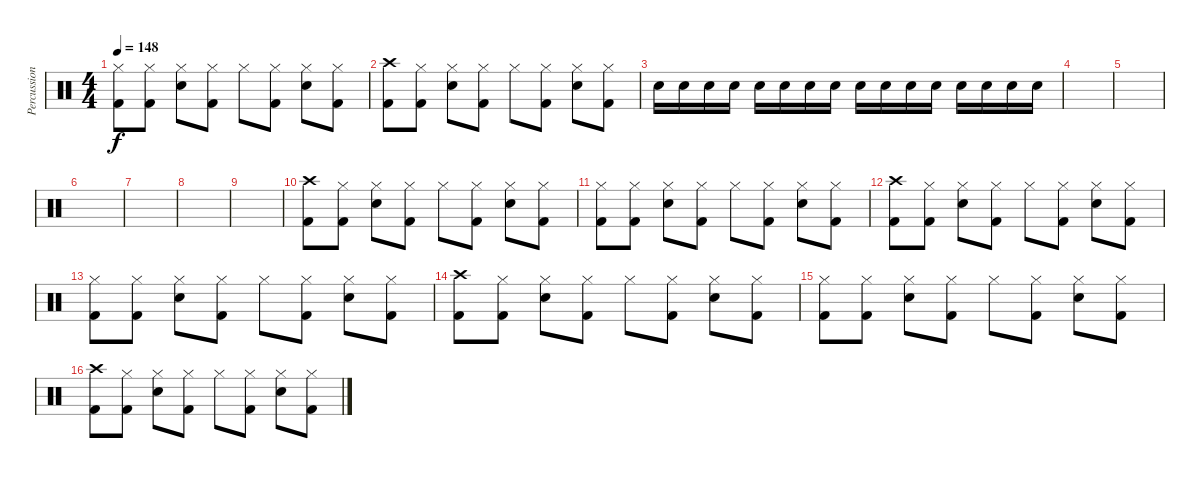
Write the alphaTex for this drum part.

\track ("Percussion" "Percussion") {instrument percussion}
\staff {score}
\articulation defaults
\ts (4 4)
\tempo 148
\clef neutral
\ks c
("Hi-Hat (closed)" "Kick (hit) 2").8{dy f} ("Hi-Hat (closed)" "Kick (hit) 2").8 ("Hi-Hat (closed)" "Electric Snare (hit)").8 ("Hi-Hat (closed)" "Kick (hit) 2").8 "Hi-Hat (closed)".8 ("Hi-Hat (closed)" "Kick (hit) 2").8 ("Hi-Hat (closed)" "Electric Snare (hit)").8 ("Hi-Hat (closed)" "Kick (hit) 2").8 |
("Crash high (hit)" "Kick (hit) 2").8 ("Hi-Hat (closed)" "Kick (hit) 2").8 ("Hi-Hat (closed)" "Electric Snare (hit)").8 ("Hi-Hat (closed)" "Kick (hit) 2").8 "Hi-Hat (closed)".8 ("Hi-Hat (closed)" "Kick (hit) 2").8 ("Hi-Hat (closed)" "Electric Snare (hit)").8 ("Hi-Hat (closed)" "Kick (hit) 2").8 |
"Electric Snare (hit)".16 "Electric Snare (hit)".16 "Electric Snare (hit)".16 "Electric Snare (hit)".16 "Electric Snare (hit)".16 "Electric Snare (hit)".16 "Electric Snare (hit)".16 "Electric Snare (hit)".16 "Electric Snare (hit)".16 "Electric Snare (hit)".16 "Electric Snare (hit)".16 "Electric Snare (hit)".16 "Electric Snare (hit)".16 "Electric Snare (hit)".16 "Electric Snare (hit)".16 "Electric Snare (hit)".16 |
|
|
|
|
|
|
("Crash high (hit)" "Kick (hit) 2").8 ("Hi-Hat (closed)" "Kick (hit) 2").8 ("Hi-Hat (closed)" "Electric Snare (hit)").8 ("Hi-Hat (closed)" "Kick (hit) 2").8 "Hi-Hat (closed)".8 ("Hi-Hat (closed)" "Kick (hit) 2").8 ("Hi-Hat (closed)" "Electric Snare (hit)").8 ("Hi-Hat (closed)" "Kick (hit) 2").8 |
("Hi-Hat (closed)" "Kick (hit) 2").8 ("Hi-Hat (closed)" "Kick (hit) 2").8 ("Hi-Hat (closed)" "Electric Snare (hit)").8 ("Hi-Hat (closed)" "Kick (hit) 2").8 "Hi-Hat (closed)".8 ("Hi-Hat (closed)" "Kick (hit) 2").8 ("Hi-Hat (closed)" "Electric Snare (hit)").8 ("Hi-Hat (closed)" "Kick (hit) 2").8 |
("Crash high (hit)" "Kick (hit) 2").8 ("Hi-Hat (closed)" "Kick (hit) 2").8 ("Hi-Hat (closed)" "Electric Snare (hit)").8 ("Hi-Hat (closed)" "Kick (hit) 2").8 "Hi-Hat (closed)".8 ("Hi-Hat (closed)" "Kick (hit) 2").8 ("Hi-Hat (closed)" "Electric Snare (hit)").8 ("Hi-Hat (closed)" "Kick (hit) 2").8 |
("Hi-Hat (closed)" "Kick (hit) 2").8 ("Hi-Hat (closed)" "Kick (hit) 2").8 ("Hi-Hat (closed)" "Electric Snare (hit)").8 ("Hi-Hat (closed)" "Kick (hit) 2").8 "Hi-Hat (closed)".8 ("Hi-Hat (closed)" "Kick (hit) 2").8 ("Hi-Hat (closed)" "Electric Snare (hit)").8 ("Hi-Hat (closed)" "Kick (hit) 2").8 |
("Crash high (hit)" "Kick (hit) 2").8 ("Hi-Hat (closed)" "Kick (hit) 2").8 ("Hi-Hat (closed)" "Electric Snare (hit)").8 ("Hi-Hat (closed)" "Kick (hit) 2").8 "Hi-Hat (closed)".8 ("Hi-Hat (closed)" "Kick (hit) 2").8 ("Hi-Hat (closed)" "Electric Snare (hit)").8 ("Hi-Hat (closed)" "Kick (hit) 2").8 |
("Hi-Hat (closed)" "Kick (hit) 2").8 ("Hi-Hat (closed)" "Kick (hit) 2").8 ("Hi-Hat (closed)" "Electric Snare (hit)").8 ("Hi-Hat (closed)" "Kick (hit) 2").8 "Hi-Hat (closed)".8 ("Hi-Hat (closed)" "Kick (hit) 2").8 ("Hi-Hat (closed)" "Electric Snare (hit)").8 ("Hi-Hat (closed)" "Kick (hit) 2").8 |
("Crash high (hit)" "Kick (hit) 2").8 ("Hi-Hat (closed)" "Kick (hit) 2").8 ("Hi-Hat (closed)" "Electric Snare (hit)").8 ("Hi-Hat (closed)" "Kick (hit) 2").8 "Hi-Hat (closed)".8 ("Hi-Hat (closed)" "Kick (hit) 2").8 ("Hi-Hat (closed)" "Electric Snare (hit)").8 ("Hi-Hat (closed)" "Kick (hit) 2").8
